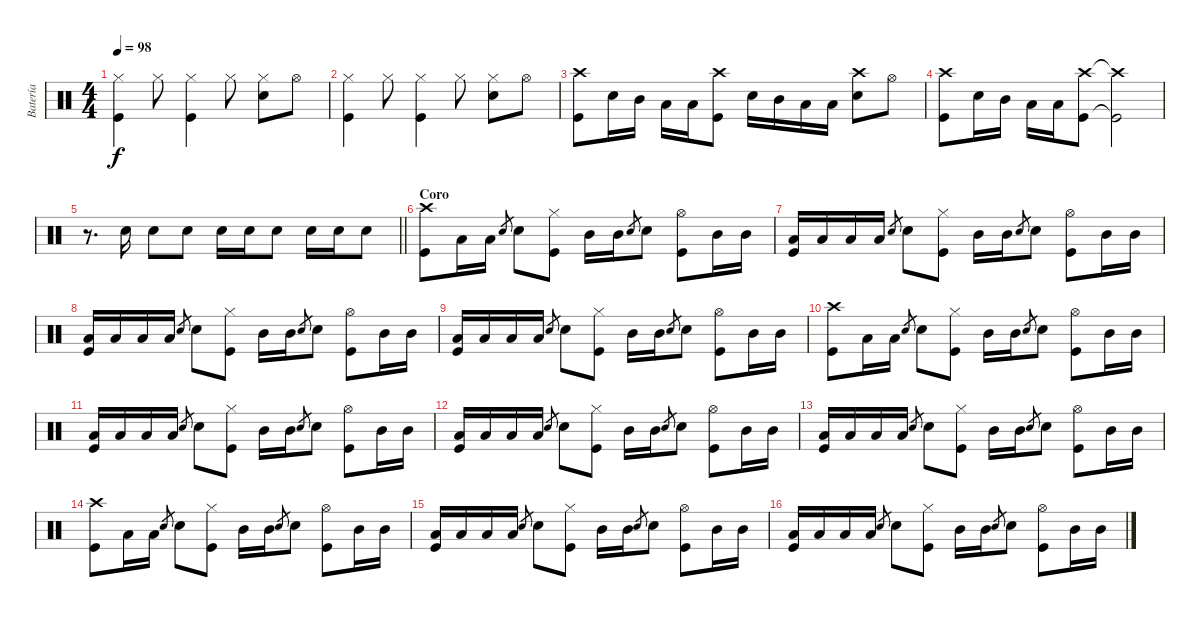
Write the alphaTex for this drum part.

\track ("Batería" "Batería") {instrument percussion}
\staff {score}
\articulation defaults
\ts (4 4)
\tempo 98
\clef neutral
\ks c
("Hi-Hat (closed)" "Kick (hit)").4{dy f} "Hi-Hat (closed)".8 ("Hi-Hat (closed)" "Kick (hit)").4 "Hi-Hat (closed)".8 ("Hi-Hat (closed)" "Snare (hit) 2").8 "Hi-Hat (open)".8 |
("Hi-Hat (closed)" "Kick (hit)").4 "Hi-Hat (closed)".8 ("Hi-Hat (closed)" "Kick (hit)").4 "Hi-Hat (closed)".8 ("Hi-Hat (closed)" "Snare (hit) 2").8 "Hi-Hat (open)".8 |
("Crash high (hit)" "Kick (hit)").8 "Snare (hit) 2".16 "Mid Tom (hit)".16 "Low Tom (hit)".16 "Low Floor Tom (hit)".16 ("Crash high (hit)" "Kick (hit)").8 "Snare (hit) 2".16 "Mid Tom (hit)".16 "Low Tom (hit)".16 "Low Floor Tom (hit)".16 ("Crash high (hit)" "Snare (hit) 2").8 "Hi-Hat (open)".8 |
("Crash high (hit)" "Kick (hit)").8 "Snare (hit) 2".16 "Mid Tom (hit)".16 "Low Tom (hit)".16 "Low Floor Tom (hit)".16 ("Crash high (hit)" "Kick (hit)").8 ("Crash high (hit)"{t} "Kick (hit)"{t}).2 |
\barLineRight lightlight
r.8{d} "Snare (hit) 2".16 "Snare (hit) 2".8 "Snare (hit) 2".8 "Snare (hit) 2".16 "Snare (hit) 2".16 "Snare (hit) 2".8 "Snare (hit) 2".16 "Snare (hit) 2".16 "Snare (hit) 2".8 |
\section ("" "Coro")
("Crash high (hit)" "Kick (hit)").8 "Low Tom (hit)".16 "Low Tom (hit)".16 "Snare (hit) 2".8{gr} "Snare (hit) 2".8 ("Hi-Hat (closed)" "Kick (hit)").8 "Mid Tom (hit)".16 "Mid Tom (hit)".16 "Snare (hit) 2".8{gr} "Snare (hit) 2".8 ("Hi-Hat (open)" "Kick (hit)").8 "Mid Tom (hit)".16 "Mid Tom (hit)".16 |
("Low Tom (hit)" "Kick (hit)").16 "Low Tom (hit)".16 "Low Floor Tom (hit)".16 "Low Floor Tom (hit)".16 "Snare (hit) 2".8{gr} "Snare (hit) 2".8 ("Hi-Hat (closed)" "Kick (hit)").8 "Mid Tom (hit)".16 "Mid Tom (hit)".16 "Snare (hit) 2".8{gr} "Snare (hit) 2".8 ("Hi-Hat (open)" "Kick (hit)").8 "Mid Tom (hit)".16 "Mid Tom (hit)".16 |
("Low Tom (hit)" "Kick (hit)").16 "Low Tom (hit)".16 "Low Floor Tom (hit)".16 "Low Floor Tom (hit)".16 "Snare (hit) 2".8{gr} "Snare (hit) 2".8 ("Hi-Hat (closed)" "Kick (hit)").8 "Mid Tom (hit)".16 "Mid Tom (hit)".16 "Snare (hit) 2".8{gr} "Snare (hit) 2".8 ("Hi-Hat (open)" "Kick (hit)").8 "Mid Tom (hit)".16 "Mid Tom (hit)".16 |
("Low Tom (hit)" "Kick (hit)").16 "Low Tom (hit)".16 "Low Floor Tom (hit)".16 "Low Floor Tom (hit)".16 "Snare (hit) 2".8{gr} "Snare (hit) 2".8 ("Hi-Hat (closed)" "Kick (hit)").8 "Mid Tom (hit)".16 "Mid Tom (hit)".16 "Snare (hit) 2".8{gr} "Snare (hit) 2".8 ("Hi-Hat (open)" "Kick (hit)").8 "Mid Tom (hit)".16 "Mid Tom (hit)".16 |
("Crash high (hit)" "Kick (hit)").8 "Low Tom (hit)".16 "Low Tom (hit)".16 "Snare (hit) 2".8{gr} "Snare (hit) 2".8 ("Hi-Hat (closed)" "Kick (hit)").8 "Mid Tom (hit)".16 "Mid Tom (hit)".16 "Snare (hit) 2".8{gr} "Snare (hit) 2".8 ("Hi-Hat (open)" "Kick (hit)").8 "Mid Tom (hit)".16 "Mid Tom (hit)".16 |
("Low Tom (hit)" "Kick (hit)").16 "Low Tom (hit)".16 "Low Floor Tom (hit)".16 "Low Floor Tom (hit)".16 "Snare (hit) 2".8{gr} "Snare (hit) 2".8 ("Hi-Hat (closed)" "Kick (hit)").8 "Mid Tom (hit)".16 "Mid Tom (hit)".16 "Snare (hit) 2".8{gr} "Snare (hit) 2".8 ("Hi-Hat (open)" "Kick (hit)").8 "Mid Tom (hit)".16 "Mid Tom (hit)".16 |
("Low Tom (hit)" "Kick (hit)").16 "Low Tom (hit)".16 "Low Floor Tom (hit)".16 "Low Floor Tom (hit)".16 "Snare (hit) 2".8{gr} "Snare (hit) 2".8 ("Hi-Hat (closed)" "Kick (hit)").8 "Mid Tom (hit)".16 "Mid Tom (hit)".16 "Snare (hit) 2".8{gr} "Snare (hit) 2".8 ("Hi-Hat (open)" "Kick (hit)").8 "Mid Tom (hit)".16 "Mid Tom (hit)".16 |
("Low Tom (hit)" "Kick (hit)").16 "Low Tom (hit)".16 "Low Floor Tom (hit)".16 "Low Floor Tom (hit)".16 "Snare (hit) 2".8{gr} "Snare (hit) 2".8 ("Hi-Hat (closed)" "Kick (hit)").8 "Mid Tom (hit)".16 "Mid Tom (hit)".16 "Snare (hit) 2".8{gr} "Snare (hit) 2".8 ("Hi-Hat (open)" "Kick (hit)").8 "Mid Tom (hit)".16 "Mid Tom (hit)".16 |
("Crash high (hit)" "Kick (hit)").8 "Low Tom (hit)".16 "Low Tom (hit)".16 "Snare (hit) 2".8{gr} "Snare (hit) 2".8 ("Hi-Hat (closed)" "Kick (hit)").8 "Mid Tom (hit)".16 "Mid Tom (hit)".16 "Snare (hit) 2".8{gr} "Snare (hit) 2".8 ("Hi-Hat (open)" "Kick (hit)").8 "Mid Tom (hit)".16 "Mid Tom (hit)".16 |
("Low Tom (hit)" "Kick (hit)").16 "Low Tom (hit)".16 "Low Floor Tom (hit)".16 "Low Floor Tom (hit)".16 "Snare (hit) 2".8{gr} "Snare (hit) 2".8 ("Hi-Hat (closed)" "Kick (hit)").8 "Mid Tom (hit)".16 "Mid Tom (hit)".16 "Snare (hit) 2".8{gr} "Snare (hit) 2".8 ("Hi-Hat (open)" "Kick (hit)").8 "Mid Tom (hit)".16 "Mid Tom (hit)".16 |
("Low Tom (hit)" "Kick (hit)").16 "Low Tom (hit)".16 "Low Floor Tom (hit)".16 "Low Floor Tom (hit)".16 "Snare (hit) 2".8{gr} "Snare (hit) 2".8 ("Hi-Hat (closed)" "Kick (hit)").8 "Mid Tom (hit)".16 "Mid Tom (hit)".16 "Snare (hit) 2".8{gr} "Snare (hit) 2".8 ("Hi-Hat (open)" "Kick (hit)").8 "Mid Tom (hit)".16 "Mid Tom (hit)".16
